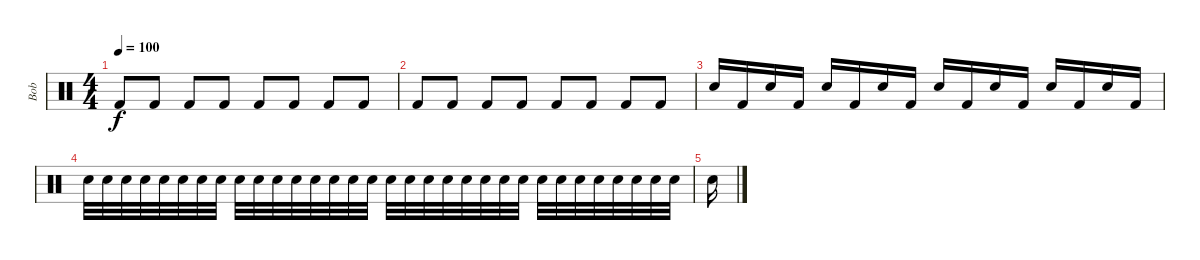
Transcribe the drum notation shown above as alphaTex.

\track ("Bob" "Bob") {instrument percussion}
\staff {score}
\articulation defaults
\ts (4 4)
\tempo 100
\clef neutral
\ks c "Kick (hit) 2".8{dy f} "Kick (hit) 2".8 "Kick (hit) 2".8 "Kick (hit) 2".8 "Kick (hit) 2".8 "Kick (hit) 2".8 "Kick (hit) 2".8 "Kick (hit) 2".8
|
"Kick (hit) 2".8 "Kick (hit) 2".8 "Kick (hit) 2".8 "Kick (hit) 2".8 "Kick (hit) 2".8 "Kick (hit) 2".8 "Kick (hit) 2".8 "Kick (hit) 2".8 |
"Snare (hit) 2".16 "Kick (hit) 2".16 "Snare (hit) 2".16 "Kick (hit) 2".16 "Snare (hit) 2".16 "Kick (hit) 2".16 "Snare (hit) 2".16 "Kick (hit) 2".16 "Snare (hit) 2".16 "Kick (hit) 2".16 "Snare (hit) 2".16 "Kick (hit) 2".16 "Snare (hit) 2".16 "Kick (hit) 2".16 "Snare (hit) 2".16 "Kick (hit) 2".16 |
"Snare (hit) 2".32 "Snare (hit) 2".32 "Snare (hit) 2".32 "Snare (hit) 2".32 "Snare (hit) 2".32 "Snare (hit) 2".32 "Snare (hit) 2".32 "Snare (hit) 2".32 "Snare (hit) 2".32 "Snare (hit) 2".32 "Snare (hit) 2".32 "Snare (hit) 2".32 "Snare (hit) 2".32 "Snare (hit) 2".32 "Snare (hit) 2".32 "Snare (hit) 2".32 "Snare (hit) 2".32 "Snare (hit) 2".32 "Snare (hit) 2".32 "Snare (hit) 2".32 "Snare (hit) 2".32 "Snare (hit) 2".32 "Snare (hit) 2".32 "Snare (hit) 2".32 "Snare (hit) 2".32 "Snare (hit) 2".32 "Snare (hit) 2".32 "Snare (hit) 2".32 "Snare (hit) 2".32 "Snare (hit) 2".32 "Snare (hit) 2".32 "Snare (hit) 2".32 |
"Snare (hit) 2".16
